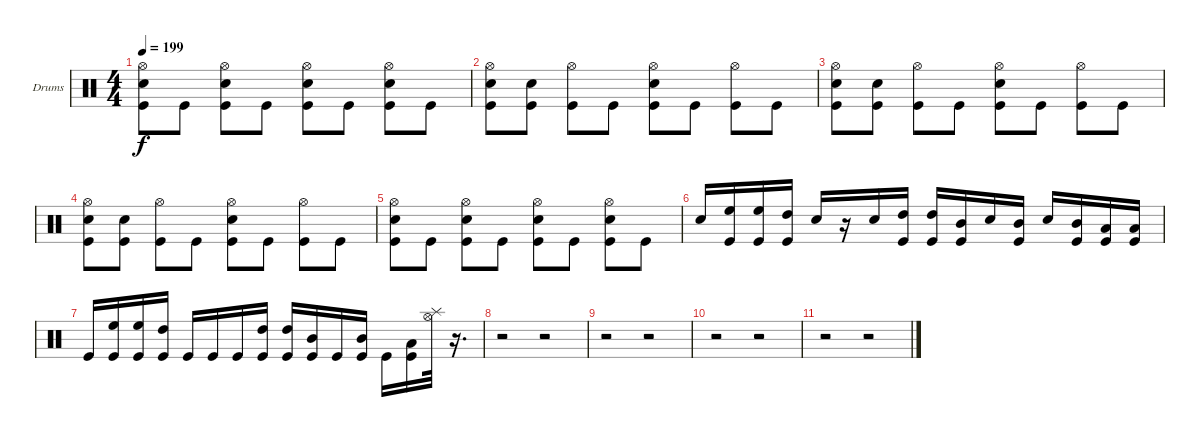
\bracketExtendMode groupsimilarinstruments
\firstSystemTrackNameOrientation horizontal
\otherSystemsTrackNameOrientation horizontal
\track ("Drumkit" "Drums") {instrument percussion}
\staff {score}
\articulation defaults
\ts (4 4)
\tempo 199
\clef neutral
\ks c
("Hi-Hat (open)" "Kick (hit)" "Snare (hit) 2").8{dy f} "Kick (hit)".8 ("Hi-Hat (open)" "Kick (hit)" "Snare (hit) 2").8 "Kick (hit)".8 ("Hi-Hat (open)" "Kick (hit)" "Snare (hit) 2").8 "Kick (hit)".8 ("Hi-Hat (open)" "Kick (hit)" "Snare (hit) 2").8 "Kick (hit)".8 |
("Hi-Hat (open)" "Kick (hit)" "Snare (hit) 2").8 ("Kick (hit)" "Snare (hit) 2").8 ("Hi-Hat (open)" "Kick (hit)").8 "Kick (hit)".8 ("Hi-Hat (open)" "Kick (hit)" "Snare (hit) 2").8 "Kick (hit)".8 ("Hi-Hat (open)" "Kick (hit)").8 "Kick (hit)".8 |
("Hi-Hat (open)" "Kick (hit)" "Snare (hit) 2").8 ("Kick (hit)" "Snare (hit) 2").8 ("Hi-Hat (open)" "Kick (hit)").8 "Kick (hit)".8 ("Hi-Hat (open)" "Kick (hit)" "Snare (hit) 2").8 "Kick (hit)".8 ("Hi-Hat (open)" "Kick (hit)").8 "Kick (hit)".8 |
("Hi-Hat (open)" "Kick (hit)" "Snare (hit) 2").8 ("Kick (hit)" "Snare (hit) 2").8 ("Hi-Hat (open)" "Kick (hit)").8 "Kick (hit)".8 ("Hi-Hat (open)" "Kick (hit)" "Snare (hit) 2").8 "Kick (hit)".8 ("Hi-Hat (open)" "Kick (hit)").8 "Kick (hit)".8 |
("Hi-Hat (open)" "Kick (hit)" "Snare (hit) 2").8 "Kick (hit)".8 ("Hi-Hat (open)" "Kick (hit)" "Snare (hit) 2").8 "Kick (hit)".8 ("Hi-Hat (open)" "Kick (hit)" "Snare (hit) 2").8 "Kick (hit)".8 ("Hi-Hat (open)" "Kick (hit)" "Snare (hit) 2").8 "Kick (hit)".8 |
"Snare (hit) 2".16 ("High Floor Tom (hit)" "Kick (hit)").16 ("High Floor Tom (hit)" "Kick (hit)").16 ("High Tom (hit)" "Kick (hit)").16 "Snare (hit) 2".16 r.16 "Snare (hit) 2".16 ("High Tom (hit)" "Kick (hit)").16 ("High Tom (hit)" "Kick (hit)").16 ("Mid Tom (hit)" "Kick (hit)").16 "Snare (hit) 2".16 ("Mid Tom (hit)" "Kick (hit)").16 "Snare (hit) 2".16 ("Mid Tom (hit)" "Kick (hit)").16 ("Low Tom (hit)" "Kick (hit)").16 ("Low Tom (hit)" "Kick (hit)").16 |
"Kick (hit)".16 ("High Floor Tom (hit)" "Kick (hit)").16 ("High Floor Tom (hit)" "Kick (hit)").16 ("High Tom (hit)" "Kick (hit)").16 "Kick (hit)".16 "Kick (hit)".16 "Kick (hit)".16 ("High Tom (hit)" "Kick (hit)").16 ("High Tom (hit)" "Kick (hit)").16 ("Mid Tom (hit)" "Kick (hit)").16 "Kick (hit)".16 ("Mid Tom (hit)" "Kick (hit)").16 "Kick (hit)".16 ("Low Tom (hit)" "Kick (hit)").16 ("Hi-Hat (open)" "Splash (hit)").32 r.16{d} |
r.2 r.2 |
r.2 r.2 |
r.2 r.2 |
r.2 r.2
